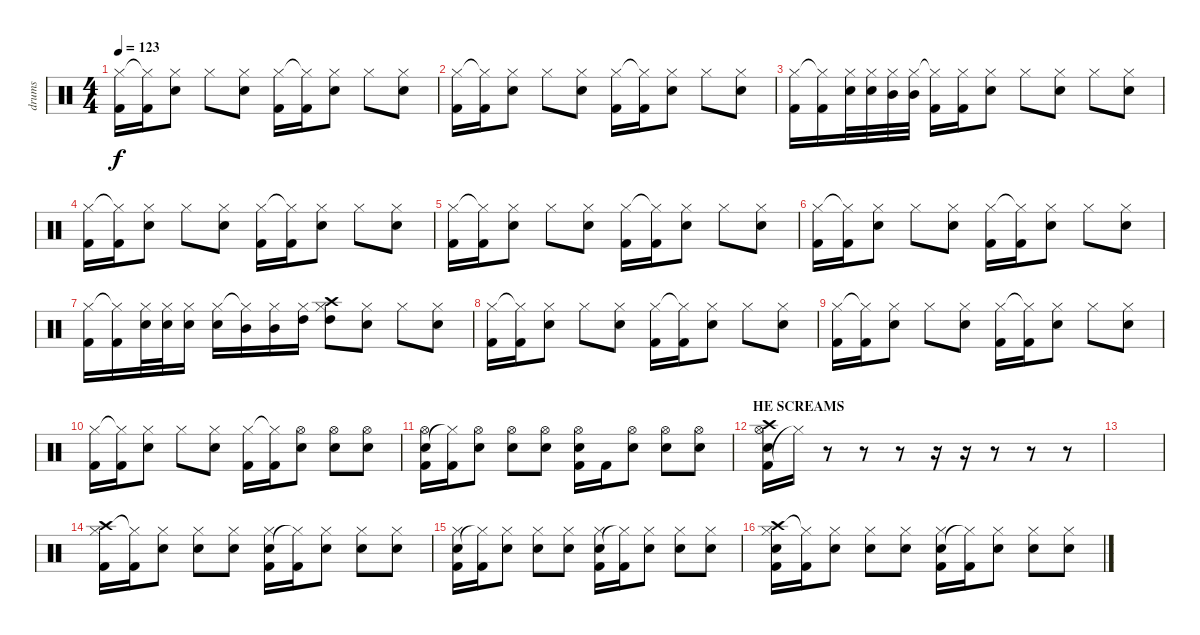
\track ("drums" "drums") {instrument percussion}
\staff {score}
\articulation defaults
\ts (4 4)
\tempo 123
\clef neutral
\ks c
("Kick (hit) 2" "Hi-Hat (closed)").16{dy f} ("Kick (hit) 2" "Hi-Hat (closed)"{t}).16 ("Electric Snare (hit)" "Hi-Hat (closed)").8 "Hi-Hat (closed)".8 ("Electric Snare (hit)" "Hi-Hat (closed)").8 ("Kick (hit) 2" "Hi-Hat (closed)").16 ("Kick (hit) 2" "Hi-Hat (closed)"{t}).16 ("Electric Snare (hit)" "Hi-Hat (closed)").8 "Hi-Hat (closed)".8 ("Electric Snare (hit)" "Hi-Hat (closed)").8 |
("Kick (hit) 2" "Hi-Hat (closed)").16 ("Kick (hit) 2" "Hi-Hat (closed)"{t}).16 ("Electric Snare (hit)" "Hi-Hat (closed)").8 "Hi-Hat (closed)".8 ("Electric Snare (hit)" "Hi-Hat (closed)").8 ("Kick (hit) 2" "Hi-Hat (closed)").16 ("Kick (hit) 2" "Hi-Hat (closed)"{t}).16 ("Electric Snare (hit)" "Hi-Hat (closed)").8 "Hi-Hat (closed)".8 ("Electric Snare (hit)" "Hi-Hat (closed)").8 |
("Kick (hit) 2" "Hi-Hat (closed)").16 ("Kick (hit) 2" "Hi-Hat (closed)"{t}).16 ("Electric Snare (hit)" "Hi-Hat (closed)").32 ("Electric Snare (hit)" "Hi-Hat (closed)").32 ("Mid Tom (hit)" "Hi-Hat (closed)").32 ("Mid Tom (hit)" "Hi-Hat (closed)").32 ("Kick (hit) 2" "Hi-Hat (closed)"{t}).16 ("Kick (hit) 2" "Hi-Hat (closed)").16 ("Electric Snare (hit)" "Hi-Hat (closed)").8 "Hi-Hat (closed)".8 ("Electric Snare (hit)" "Hi-Hat (closed)").8 "Hi-Hat (closed)".8 ("Electric Snare (hit)" "Hi-Hat (closed)").8 |
("Kick (hit) 2" "Hi-Hat (closed)").16 ("Kick (hit) 2" "Hi-Hat (closed)"{t}).16 ("Electric Snare (hit)" "Hi-Hat (closed)").8 "Hi-Hat (closed)".8 ("Electric Snare (hit)" "Hi-Hat (closed)").8 ("Kick (hit) 2" "Hi-Hat (closed)").16 ("Kick (hit) 2" "Hi-Hat (closed)"{t}).16 ("Electric Snare (hit)" "Hi-Hat (closed)").8 "Hi-Hat (closed)".8 ("Electric Snare (hit)" "Hi-Hat (closed)").8 |
("Kick (hit) 2" "Hi-Hat (closed)").16 ("Kick (hit) 2" "Hi-Hat (closed)"{t}).16 ("Electric Snare (hit)" "Hi-Hat (closed)").8 "Hi-Hat (closed)".8 ("Electric Snare (hit)" "Hi-Hat (closed)").8 ("Kick (hit) 2" "Hi-Hat (closed)").16 ("Kick (hit) 2" "Hi-Hat (closed)"{t}).16 ("Electric Snare (hit)" "Hi-Hat (closed)").8 "Hi-Hat (closed)".8 ("Electric Snare (hit)" "Hi-Hat (closed)").8 |
("Kick (hit) 2" "Hi-Hat (closed)").16 ("Kick (hit) 2" "Hi-Hat (closed)"{t}).16 ("Electric Snare (hit)" "Hi-Hat (closed)").8 "Hi-Hat (closed)".8 ("Electric Snare (hit)" "Hi-Hat (closed)").8 ("Kick (hit) 2" "Hi-Hat (closed)").16 ("Kick (hit) 2" "Hi-Hat (closed)"{t}).16 ("Electric Snare (hit)" "Hi-Hat (closed)").8 "Hi-Hat (closed)".8 ("Electric Snare (hit)" "Hi-Hat (closed)").8 |
("Kick (hit) 2" "Hi-Hat (closed)").16 ("Kick (hit) 2" "Hi-Hat (closed)"{t}).16 ("Electric Snare (hit)" "Hi-Hat (closed)").32 ("Electric Snare (hit)" "Hi-Hat (closed)").32 ("Electric Snare (hit)" "Hi-Hat (closed)").16 ("Electric Snare (hit)" "Hi-Hat (closed)").16 ("Mid Tom (hit)" "Hi-Hat (closed)"{t}).16 ("Mid Tom (hit)" "Hi-Hat (closed)").16 ("High Tom (hit)" "Hi-Hat (closed)").16 ("Crash high (hit)" "High Tom (hit)" "Hi-Hat (closed)").8 ("Electric Snare (hit)" "Hi-Hat (closed)").8 "Hi-Hat (closed)".8 ("Electric Snare (hit)" "Hi-Hat (closed)").8 |
("Kick (hit) 2" "Hi-Hat (closed)").16 ("Kick (hit) 2" "Hi-Hat (closed)"{t}).16 ("Electric Snare (hit)" "Hi-Hat (closed)").8 "Hi-Hat (closed)".8 ("Electric Snare (hit)" "Hi-Hat (closed)").8 ("Kick (hit) 2" "Hi-Hat (closed)").16 ("Kick (hit) 2" "Hi-Hat (closed)"{t}).16 ("Electric Snare (hit)" "Hi-Hat (closed)").8 "Hi-Hat (closed)".8 ("Electric Snare (hit)" "Hi-Hat (closed)").8 |
("Kick (hit) 2" "Hi-Hat (closed)").16 ("Kick (hit) 2" "Hi-Hat (closed)"{t}).16 ("Electric Snare (hit)" "Hi-Hat (closed)").8 "Hi-Hat (closed)".8 ("Electric Snare (hit)" "Hi-Hat (closed)").8 ("Kick (hit) 2" "Hi-Hat (closed)").16 ("Kick (hit) 2" "Hi-Hat (closed)"{t}).16 ("Electric Snare (hit)" "Hi-Hat (closed)").8 "Hi-Hat (closed)".8 ("Electric Snare (hit)" "Hi-Hat (closed)").8 |
("Kick (hit) 2" "Hi-Hat (closed)").16 ("Kick (hit) 2" "Hi-Hat (closed)"{t}).16 ("Electric Snare (hit)" "Hi-Hat (closed)").8 "Hi-Hat (closed)".8 ("Electric Snare (hit)" "Hi-Hat (closed)").8 ("Kick (hit) 2" "Hi-Hat (closed)").16 ("Kick (hit) 2" "Hi-Hat (closed)"{t}).16 ("Electric Snare (hit)" "Hi-Hat (open)").8 ("Electric Snare (hit)" "Hi-Hat (open)").8 ("Electric Snare (hit)" "Hi-Hat (open)").8 |
("Kick (hit) 2" "Electric Snare (hit)" "Hi-Hat (open)").16 ("Kick (hit) 2" "Hi-Hat (closed)"{t}).16 ("Electric Snare (hit)" "Hi-Hat (open)").8 ("Electric Snare (hit)" "Hi-Hat (open)").8 ("Electric Snare (hit)" "Hi-Hat (open)").8 ("Kick (hit) 2" "Electric Snare (hit)" "Hi-Hat (open)").16 "Kick (hit) 2".16 ("Electric Snare (hit)" "Hi-Hat (open)").8 ("Electric Snare (hit)" "Hi-Hat (open)").8 ("Electric Snare (hit)" "Hi-Hat (open)").8 |
\section ("" "HE SCREAMS")
("Kick (hit) 2" "Crash high (hit)" "Electric Snare (hit)" "Hi-Hat (open)").16 "Hi-Hat (closed)"{t}.16 r.8 r.8 r.8 r.16 r.16 r.8 r.8 r.8 |
|
("Kick (hit) 2" "Crash high (hit)" "Hi-Hat (closed)").16 ("Kick (hit) 2" "Hi-Hat (closed)"{t}).16 ("Electric Snare (hit)" "Hi-Hat (closed)").8 ("Electric Snare (hit)" "Hi-Hat (closed)").8 ("Electric Snare (hit)" "Hi-Hat (closed)").8 ("Kick (hit) 2" "Electric Snare (hit)" "Hi-Hat (closed)").16 ("Kick (hit) 2" "Hi-Hat (closed)"{t}).16 ("Electric Snare (hit)" "Hi-Hat (closed)").8 ("Electric Snare (hit)" "Hi-Hat (closed)").8 ("Electric Snare (hit)" "Hi-Hat (closed)").8 |
("Kick (hit) 2" "Electric Snare (hit)" "Hi-Hat (closed)").16 ("Kick (hit) 2" "Hi-Hat (closed)"{t}).16 ("Electric Snare (hit)" "Hi-Hat (closed)").8 ("Electric Snare (hit)" "Hi-Hat (closed)").8 ("Electric Snare (hit)" "Hi-Hat (closed)").8 ("Kick (hit) 2" "Electric Snare (hit)" "Hi-Hat (closed)").16 ("Kick (hit) 2" "Hi-Hat (closed)"{t}).16 ("Electric Snare (hit)" "Hi-Hat (closed)").8 ("Electric Snare (hit)" "Hi-Hat (closed)").8 ("Electric Snare (hit)" "Hi-Hat (closed)").8 |
("Kick (hit) 2" "Crash high (hit)" "Electric Snare (hit)" "Hi-Hat (closed)").16 ("Kick (hit) 2" "Hi-Hat (closed)"{t}).16 ("Electric Snare (hit)" "Hi-Hat (closed)").8 ("Electric Snare (hit)" "Hi-Hat (closed)").8 ("Electric Snare (hit)" "Hi-Hat (closed)").8 ("Kick (hit) 2" "Electric Snare (hit)" "Hi-Hat (closed)").16 ("Kick (hit) 2" "Hi-Hat (closed)"{t}).16 ("Electric Snare (hit)" "Hi-Hat (closed)").8 ("Electric Snare (hit)" "Hi-Hat (closed)").8 ("Electric Snare (hit)" "Hi-Hat (closed)").8
